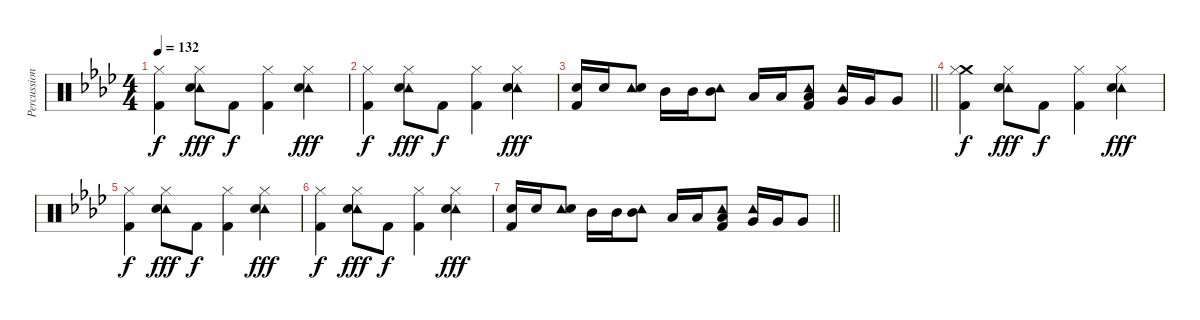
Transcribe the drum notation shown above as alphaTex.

\track ("Percussion - Nigel Olsen/Ray Cooper" "Percussion") {instrument percussion}
\staff {score}
\articulation defaults
\ts (4 4)
\tempo 132
\clef neutral
\ks ab
("Hi-Hat (closed)" "Kick (hit) 2").4{dy f} ("Tambourine (hit)" "Hi-Hat (closed)" "Snare (hit) 2").8{dy fff} "Kick (hit) 2".8{dy f} ("Hi-Hat (closed)" "Kick (hit) 2").4 ("Tambourine (hit)" "Hi-Hat (closed)" "Snare (hit) 2").4{dy fff} |
("Hi-Hat (closed)" "Kick (hit) 2").4{dy f} ("Tambourine (hit)" "Hi-Hat (closed)" "Snare (hit) 2").8{dy fff} "Kick (hit) 2".8{dy f} ("Hi-Hat (closed)" "Kick (hit) 2").4 ("Tambourine (hit)" "Hi-Hat (closed)" "Snare (hit) 2").4{dy fff} |
\barLineRight lightlight
("Snare (hit) 2" "Kick (hit) 2").16 "Snare (hit) 2".16 ("Tambourine (hit)" "Snare (hit) 2").8 "Mid Tom (hit)".16 "Mid Tom (hit)".16 ("Tambourine (hit)" "Mid Tom (hit)").8 "Low Tom (hit)".16 "Low Tom (hit)".16 ("Tambourine (hit)" "Low Tom (hit)" "Kick (hit) 2").8 ("Tambourine (hit)" "Very Low Tom (hit)").16 "Very Low Tom (hit)".16 "Very Low Tom (hit)".8 |
("Crash medium (hit)" "Hi-Hat (closed)" "Kick (hit) 2").4{dy f volume 0} ("Tambourine (hit)" "Hi-Hat (closed)" "Snare (hit) 2").8{dy fff} "Kick (hit) 2".8{dy f} ("Hi-Hat (closed)" "Kick (hit) 2").4 ("Tambourine (hit)" "Hi-Hat (closed)" "Snare (hit) 2").4{dy fff} |
("Hi-Hat (closed)" "Kick (hit) 2").4{dy f} ("Tambourine (hit)" "Hi-Hat (closed)" "Snare (hit) 2").8{dy fff} "Kick (hit) 2".8{dy f} ("Hi-Hat (closed)" "Kick (hit) 2").4 ("Tambourine (hit)" "Hi-Hat (closed)" "Snare (hit) 2").4{dy fff} |
("Hi-Hat (closed)" "Kick (hit) 2").4{dy f} ("Tambourine (hit)" "Hi-Hat (closed)" "Snare (hit) 2").8{dy fff} "Kick (hit) 2".8{dy f} ("Hi-Hat (closed)" "Kick (hit) 2").4 ("Tambourine (hit)" "Hi-Hat (closed)" "Snare (hit) 2").4{dy fff} |
\barLineRight lightlight
("Snare (hit) 2" "Kick (hit) 2").16 "Snare (hit) 2".16 ("Tambourine (hit)" "Snare (hit) 2").8 "Mid Tom (hit)".16 "Mid Tom (hit)".16 ("Tambourine (hit)" "Mid Tom (hit)").8 "Low Tom (hit)".16 "Low Tom (hit)".16 ("Tambourine (hit)" "Low Tom (hit)" "Kick (hit) 2").8 ("Tambourine (hit)" "Very Low Tom (hit)").16 "Very Low Tom (hit)".16 "Very Low Tom (hit)".8
